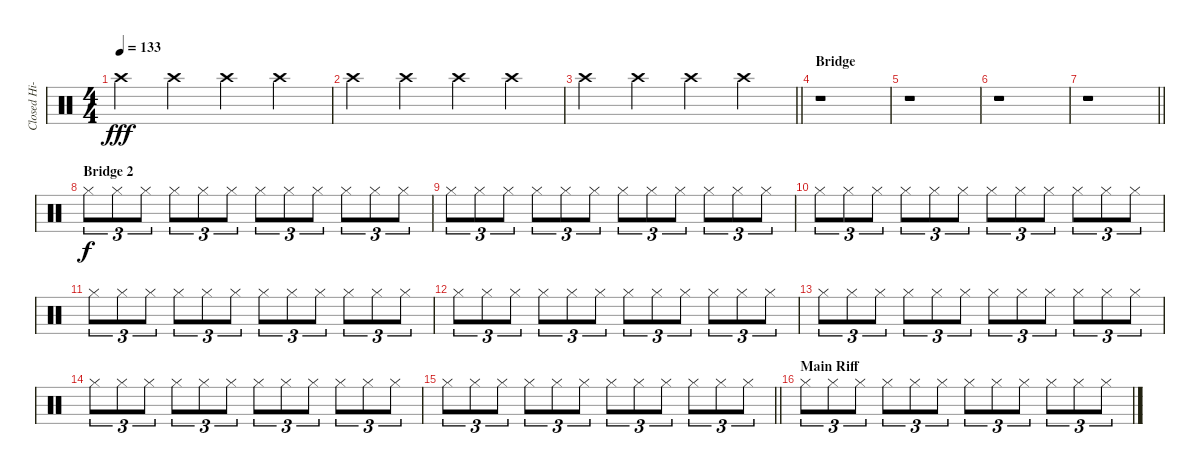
\track ("Closed Hi-hat/Synth" "Closed Hi-") {instrument percussion}
\staff {score}
\articulation defaults
\ts (4 4)
\tempo 133
\clef neutral
\ks c "Crash high (hit)".4{dy fff} "Crash high (hit)".4 "Crash high (hit)".4 "Crash high (hit)".4
|
"Crash high (hit)".4 "Crash high (hit)".4 "Crash high (hit)".4 "Crash high (hit)".4 |
\barLineRight lightlight "Crash high (hit)".4 "Crash high (hit)".4 "Crash high (hit)".4 "Crash high (hit)".4
|
\section ("" "Bridge ")
r.1 |
r.1 |
r.1 |
\barLineRight lightlight
r.1 |
\section ("" "Bridge 2")
"Hi-Hat (closed)".8{tu (3 2) dy f} "Hi-Hat (closed)".8{tu (3 2)} "Hi-Hat (closed)".8{tu (3 2)} "Hi-Hat (closed)".8{tu (3 2)} "Hi-Hat (closed)".8{tu (3 2)} "Hi-Hat (closed)".8{tu (3 2)} "Hi-Hat (closed)".8{tu (3 2)} "Hi-Hat (closed)".8{tu (3 2)} "Hi-Hat (closed)".8{tu (3 2)} "Hi-Hat (closed)".8{tu (3 2)} "Hi-Hat (closed)".8{tu (3 2)} "Hi-Hat (closed)".8{tu (3 2)} |
"Hi-Hat (closed)".8{tu (3 2)} "Hi-Hat (closed)".8{tu (3 2)} "Hi-Hat (closed)".8{tu (3 2)} "Hi-Hat (closed)".8{tu (3 2)} "Hi-Hat (closed)".8{tu (3 2)} "Hi-Hat (closed)".8{tu (3 2)} "Hi-Hat (closed)".8{tu (3 2)} "Hi-Hat (closed)".8{tu (3 2)} "Hi-Hat (closed)".8{tu (3 2)} "Hi-Hat (closed)".8{tu (3 2)} "Hi-Hat (closed)".8{tu (3 2)} "Hi-Hat (closed)".8{tu (3 2)} |
"Hi-Hat (closed)".8{tu (3 2)} "Hi-Hat (closed)".8{tu (3 2)} "Hi-Hat (closed)".8{tu (3 2)} "Hi-Hat (closed)".8{tu (3 2)} "Hi-Hat (closed)".8{tu (3 2)} "Hi-Hat (closed)".8{tu (3 2)} "Hi-Hat (closed)".8{tu (3 2)} "Hi-Hat (closed)".8{tu (3 2)} "Hi-Hat (closed)".8{tu (3 2)} "Hi-Hat (closed)".8{tu (3 2)} "Hi-Hat (closed)".8{tu (3 2)} "Hi-Hat (closed)".8{tu (3 2)} |
"Hi-Hat (closed)".8{tu (3 2)} "Hi-Hat (closed)".8{tu (3 2)} "Hi-Hat (closed)".8{tu (3 2)} "Hi-Hat (closed)".8{tu (3 2)} "Hi-Hat (closed)".8{tu (3 2)} "Hi-Hat (closed)".8{tu (3 2)} "Hi-Hat (closed)".8{tu (3 2)} "Hi-Hat (closed)".8{tu (3 2)} "Hi-Hat (closed)".8{tu (3 2)} "Hi-Hat (closed)".8{tu (3 2)} "Hi-Hat (closed)".8{tu (3 2)} "Hi-Hat (closed)".8{tu (3 2)} |
"Hi-Hat (closed)".8{tu (3 2)} "Hi-Hat (closed)".8{tu (3 2)} "Hi-Hat (closed)".8{tu (3 2)} "Hi-Hat (closed)".8{tu (3 2)} "Hi-Hat (closed)".8{tu (3 2)} "Hi-Hat (closed)".8{tu (3 2)} "Hi-Hat (closed)".8{tu (3 2)} "Hi-Hat (closed)".8{tu (3 2)} "Hi-Hat (closed)".8{tu (3 2)} "Hi-Hat (closed)".8{tu (3 2)} "Hi-Hat (closed)".8{tu (3 2)} "Hi-Hat (closed)".8{tu (3 2)} |
"Hi-Hat (closed)".8{tu (3 2)} "Hi-Hat (closed)".8{tu (3 2)} "Hi-Hat (closed)".8{tu (3 2)} "Hi-Hat (closed)".8{tu (3 2)} "Hi-Hat (closed)".8{tu (3 2)} "Hi-Hat (closed)".8{tu (3 2)} "Hi-Hat (closed)".8{tu (3 2)} "Hi-Hat (closed)".8{tu (3 2)} "Hi-Hat (closed)".8{tu (3 2)} "Hi-Hat (closed)".8{tu (3 2)} "Hi-Hat (closed)".8{tu (3 2)} "Hi-Hat (closed)".8{tu (3 2)} |
"Hi-Hat (closed)".8{tu (3 2)} "Hi-Hat (closed)".8{tu (3 2)} "Hi-Hat (closed)".8{tu (3 2)} "Hi-Hat (closed)".8{tu (3 2)} "Hi-Hat (closed)".8{tu (3 2)} "Hi-Hat (closed)".8{tu (3 2)} "Hi-Hat (closed)".8{tu (3 2)} "Hi-Hat (closed)".8{tu (3 2)} "Hi-Hat (closed)".8{tu (3 2)} "Hi-Hat (closed)".8{tu (3 2)} "Hi-Hat (closed)".8{tu (3 2)} "Hi-Hat (closed)".8{tu (3 2)} |
\barLineRight lightlight "Hi-Hat (closed)".8{tu (3 2)} "Hi-Hat (closed)".8{tu (3 2)} "Hi-Hat (closed)".8{tu (3 2)} "Hi-Hat (closed)".8{tu (3 2)} "Hi-Hat (closed)".8{tu (3 2)} "Hi-Hat (closed)".8{tu (3 2)} "Hi-Hat (closed)".8{tu (3 2)} "Hi-Hat (closed)".8{tu (3 2)} "Hi-Hat (closed)".8{tu (3 2)} "Hi-Hat (closed)".8{tu (3 2)} "Hi-Hat (closed)".8{tu (3 2)} "Hi-Hat (closed)".8{tu (3 2)}
|
\section ("" "Main Riff")
"Hi-Hat (closed)".8{tu (3 2)} "Hi-Hat (closed)".8{tu (3 2)} "Hi-Hat (closed)".8{tu (3 2)} "Hi-Hat (closed)".8{tu (3 2)} "Hi-Hat (closed)".8{tu (3 2)} "Hi-Hat (closed)".8{tu (3 2)} "Hi-Hat (closed)".8{tu (3 2)} "Hi-Hat (closed)".8{tu (3 2)} "Hi-Hat (closed)".8{tu (3 2)} "Hi-Hat (closed)".8{tu (3 2)} "Hi-Hat (closed)".8{tu (3 2)} "Hi-Hat (closed)".8{tu (3 2)}
